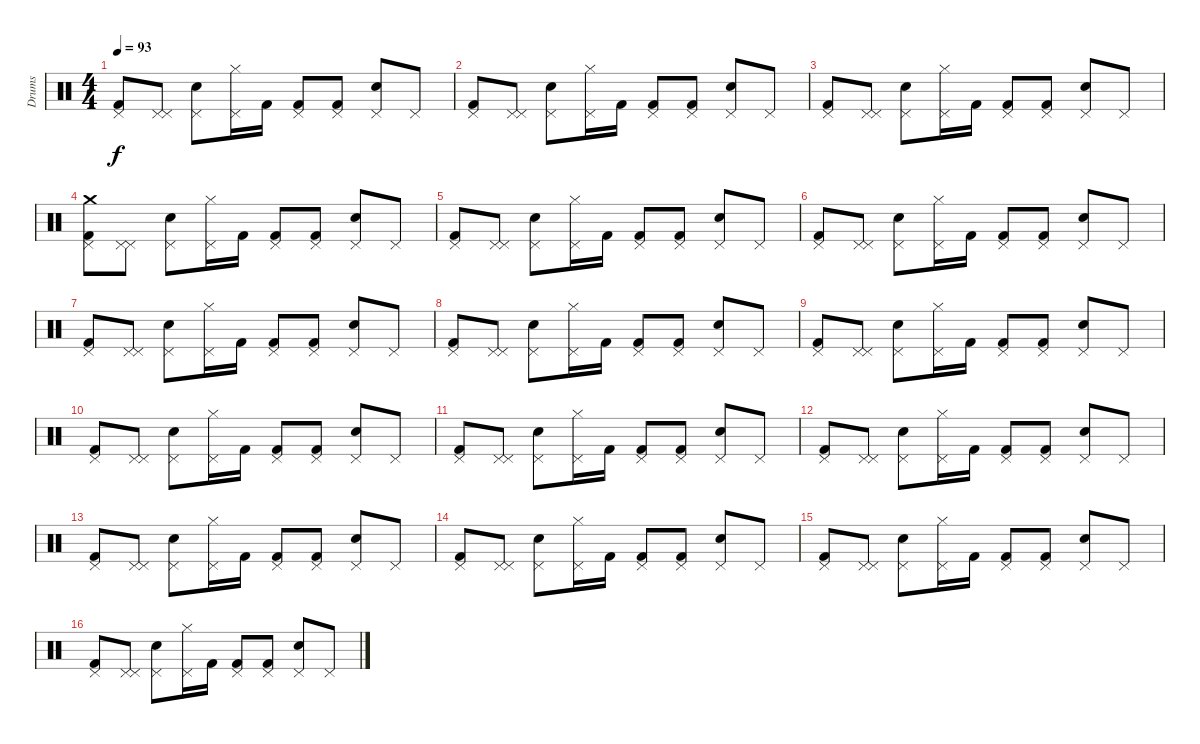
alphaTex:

\track ("Drums" "Drums") {instrument percussion}
\staff {score}
\articulation defaults
\ts (4 4)
\tempo 93
\clef neutral
\ks c
("Pedal Hi-Hat (hit)" "Kick (hit) 2").8{dy f} ("Pedal Hi-Hat (hit)" "Pedal Hi-Hat (hit)").8 ("Electric Snare (hit)" "Pedal Hi-Hat (hit)").8 ("Hi-Hat (closed)" "Pedal Hi-Hat (hit)").16 "Kick (hit) 2".16 ("Pedal Hi-Hat (hit)" "Kick (hit) 2").8 ("Pedal Hi-Hat (hit)" "Kick (hit) 2").8 ("Electric Snare (hit)" "Pedal Hi-Hat (hit)").8 "Pedal Hi-Hat (hit)".8 |
("Pedal Hi-Hat (hit)" "Kick (hit) 2").8 ("Pedal Hi-Hat (hit)" "Pedal Hi-Hat (hit)").8 ("Electric Snare (hit)" "Pedal Hi-Hat (hit)").8 ("Hi-Hat (closed)" "Pedal Hi-Hat (hit)").16 "Kick (hit) 2".16 ("Pedal Hi-Hat (hit)" "Kick (hit) 2").8 ("Pedal Hi-Hat (hit)" "Kick (hit) 2").8 ("Electric Snare (hit)" "Pedal Hi-Hat (hit)").8 "Pedal Hi-Hat (hit)".8 |
("Pedal Hi-Hat (hit)" "Kick (hit) 2").8 ("Pedal Hi-Hat (hit)" "Pedal Hi-Hat (hit)").8 ("Electric Snare (hit)" "Pedal Hi-Hat (hit)").8 ("Hi-Hat (closed)" "Pedal Hi-Hat (hit)").16 "Kick (hit) 2".16 ("Pedal Hi-Hat (hit)" "Kick (hit) 2").8 ("Pedal Hi-Hat (hit)" "Kick (hit) 2").8 ("Electric Snare (hit)" "Pedal Hi-Hat (hit)").8 "Pedal Hi-Hat (hit)".8 |
("Crash medium (hit)" "Pedal Hi-Hat (hit)" "Kick (hit) 2").8 ("Pedal Hi-Hat (hit)" "Pedal Hi-Hat (hit)").8 ("Electric Snare (hit)" "Pedal Hi-Hat (hit)").8 ("Hi-Hat (closed)" "Pedal Hi-Hat (hit)").16 "Kick (hit) 2".16 ("Pedal Hi-Hat (hit)" "Kick (hit) 2").8 ("Pedal Hi-Hat (hit)" "Kick (hit) 2").8 ("Electric Snare (hit)" "Pedal Hi-Hat (hit)").8 "Pedal Hi-Hat (hit)".8 |
("Pedal Hi-Hat (hit)" "Kick (hit) 2").8 ("Pedal Hi-Hat (hit)" "Pedal Hi-Hat (hit)").8 ("Electric Snare (hit)" "Pedal Hi-Hat (hit)").8 ("Hi-Hat (closed)" "Pedal Hi-Hat (hit)").16 "Kick (hit) 2".16 ("Pedal Hi-Hat (hit)" "Kick (hit) 2").8 ("Pedal Hi-Hat (hit)" "Kick (hit) 2").8 ("Electric Snare (hit)" "Pedal Hi-Hat (hit)").8 "Pedal Hi-Hat (hit)".8 |
("Pedal Hi-Hat (hit)" "Kick (hit) 2").8 ("Pedal Hi-Hat (hit)" "Pedal Hi-Hat (hit)").8 ("Electric Snare (hit)" "Pedal Hi-Hat (hit)").8 ("Hi-Hat (closed)" "Pedal Hi-Hat (hit)").16 "Kick (hit) 2".16 ("Pedal Hi-Hat (hit)" "Kick (hit) 2").8 ("Pedal Hi-Hat (hit)" "Kick (hit) 2").8 ("Electric Snare (hit)" "Pedal Hi-Hat (hit)").8 "Pedal Hi-Hat (hit)".8 |
("Pedal Hi-Hat (hit)" "Kick (hit) 2").8 ("Pedal Hi-Hat (hit)" "Pedal Hi-Hat (hit)").8 ("Electric Snare (hit)" "Pedal Hi-Hat (hit)").8 ("Hi-Hat (closed)" "Pedal Hi-Hat (hit)").16 "Kick (hit) 2".16 ("Pedal Hi-Hat (hit)" "Kick (hit) 2").8 ("Pedal Hi-Hat (hit)" "Kick (hit) 2").8 ("Electric Snare (hit)" "Pedal Hi-Hat (hit)").8 "Pedal Hi-Hat (hit)".8 |
("Pedal Hi-Hat (hit)" "Kick (hit) 2").8 ("Pedal Hi-Hat (hit)" "Pedal Hi-Hat (hit)").8 ("Electric Snare (hit)" "Pedal Hi-Hat (hit)").8 ("Hi-Hat (closed)" "Pedal Hi-Hat (hit)").16 "Kick (hit) 2".16 ("Pedal Hi-Hat (hit)" "Kick (hit) 2").8 ("Pedal Hi-Hat (hit)" "Kick (hit) 2").8 ("Electric Snare (hit)" "Pedal Hi-Hat (hit)").8 "Pedal Hi-Hat (hit)".8 |
("Pedal Hi-Hat (hit)" "Kick (hit) 2").8 ("Pedal Hi-Hat (hit)" "Pedal Hi-Hat (hit)").8 ("Electric Snare (hit)" "Pedal Hi-Hat (hit)").8 ("Hi-Hat (closed)" "Pedal Hi-Hat (hit)").16 "Kick (hit) 2".16 ("Pedal Hi-Hat (hit)" "Kick (hit) 2").8 ("Pedal Hi-Hat (hit)" "Kick (hit) 2").8 ("Electric Snare (hit)" "Pedal Hi-Hat (hit)").8 "Pedal Hi-Hat (hit)".8 |
("Pedal Hi-Hat (hit)" "Kick (hit) 2").8 ("Pedal Hi-Hat (hit)" "Pedal Hi-Hat (hit)").8 ("Electric Snare (hit)" "Pedal Hi-Hat (hit)").8 ("Hi-Hat (closed)" "Pedal Hi-Hat (hit)").16 "Kick (hit) 2".16 ("Pedal Hi-Hat (hit)" "Kick (hit) 2").8 ("Pedal Hi-Hat (hit)" "Kick (hit) 2").8 ("Electric Snare (hit)" "Pedal Hi-Hat (hit)").8 "Pedal Hi-Hat (hit)".8 |
("Pedal Hi-Hat (hit)" "Kick (hit) 2").8 ("Pedal Hi-Hat (hit)" "Pedal Hi-Hat (hit)").8 ("Electric Snare (hit)" "Pedal Hi-Hat (hit)").8 ("Hi-Hat (closed)" "Pedal Hi-Hat (hit)").16 "Kick (hit) 2".16 ("Pedal Hi-Hat (hit)" "Kick (hit) 2").8 ("Pedal Hi-Hat (hit)" "Kick (hit) 2").8 ("Electric Snare (hit)" "Pedal Hi-Hat (hit)").8 "Pedal Hi-Hat (hit)".8 |
("Pedal Hi-Hat (hit)" "Kick (hit) 2").8 ("Pedal Hi-Hat (hit)" "Pedal Hi-Hat (hit)").8 ("Electric Snare (hit)" "Pedal Hi-Hat (hit)").8 ("Hi-Hat (closed)" "Pedal Hi-Hat (hit)").16 "Kick (hit) 2".16 ("Pedal Hi-Hat (hit)" "Kick (hit) 2").8 ("Pedal Hi-Hat (hit)" "Kick (hit) 2").8 ("Electric Snare (hit)" "Pedal Hi-Hat (hit)").8 "Pedal Hi-Hat (hit)".8 |
("Pedal Hi-Hat (hit)" "Kick (hit) 2").8 ("Pedal Hi-Hat (hit)" "Pedal Hi-Hat (hit)").8 ("Electric Snare (hit)" "Pedal Hi-Hat (hit)").8 ("Hi-Hat (closed)" "Pedal Hi-Hat (hit)").16 "Kick (hit) 2".16 ("Pedal Hi-Hat (hit)" "Kick (hit) 2").8 ("Pedal Hi-Hat (hit)" "Kick (hit) 2").8 ("Electric Snare (hit)" "Pedal Hi-Hat (hit)").8 "Pedal Hi-Hat (hit)".8 |
("Pedal Hi-Hat (hit)" "Kick (hit) 2").8 ("Pedal Hi-Hat (hit)" "Pedal Hi-Hat (hit)").8 ("Electric Snare (hit)" "Pedal Hi-Hat (hit)").8 ("Hi-Hat (closed)" "Pedal Hi-Hat (hit)").16 "Kick (hit) 2".16 ("Pedal Hi-Hat (hit)" "Kick (hit) 2").8 ("Pedal Hi-Hat (hit)" "Kick (hit) 2").8 ("Electric Snare (hit)" "Pedal Hi-Hat (hit)").8 "Pedal Hi-Hat (hit)".8 |
("Pedal Hi-Hat (hit)" "Kick (hit) 2").8 ("Pedal Hi-Hat (hit)" "Pedal Hi-Hat (hit)").8 ("Electric Snare (hit)" "Pedal Hi-Hat (hit)").8 ("Hi-Hat (closed)" "Pedal Hi-Hat (hit)").16 "Kick (hit) 2".16 ("Pedal Hi-Hat (hit)" "Kick (hit) 2").8 ("Pedal Hi-Hat (hit)" "Kick (hit) 2").8 ("Electric Snare (hit)" "Pedal Hi-Hat (hit)").8 "Pedal Hi-Hat (hit)".8 |
("Pedal Hi-Hat (hit)" "Kick (hit) 2").8 ("Pedal Hi-Hat (hit)" "Pedal Hi-Hat (hit)").8 ("Electric Snare (hit)" "Pedal Hi-Hat (hit)").8 ("Hi-Hat (closed)" "Pedal Hi-Hat (hit)").16 "Kick (hit) 2".16 ("Pedal Hi-Hat (hit)" "Kick (hit) 2").8 ("Pedal Hi-Hat (hit)" "Kick (hit) 2").8 ("Electric Snare (hit)" "Pedal Hi-Hat (hit)").8 "Pedal Hi-Hat (hit)".8
